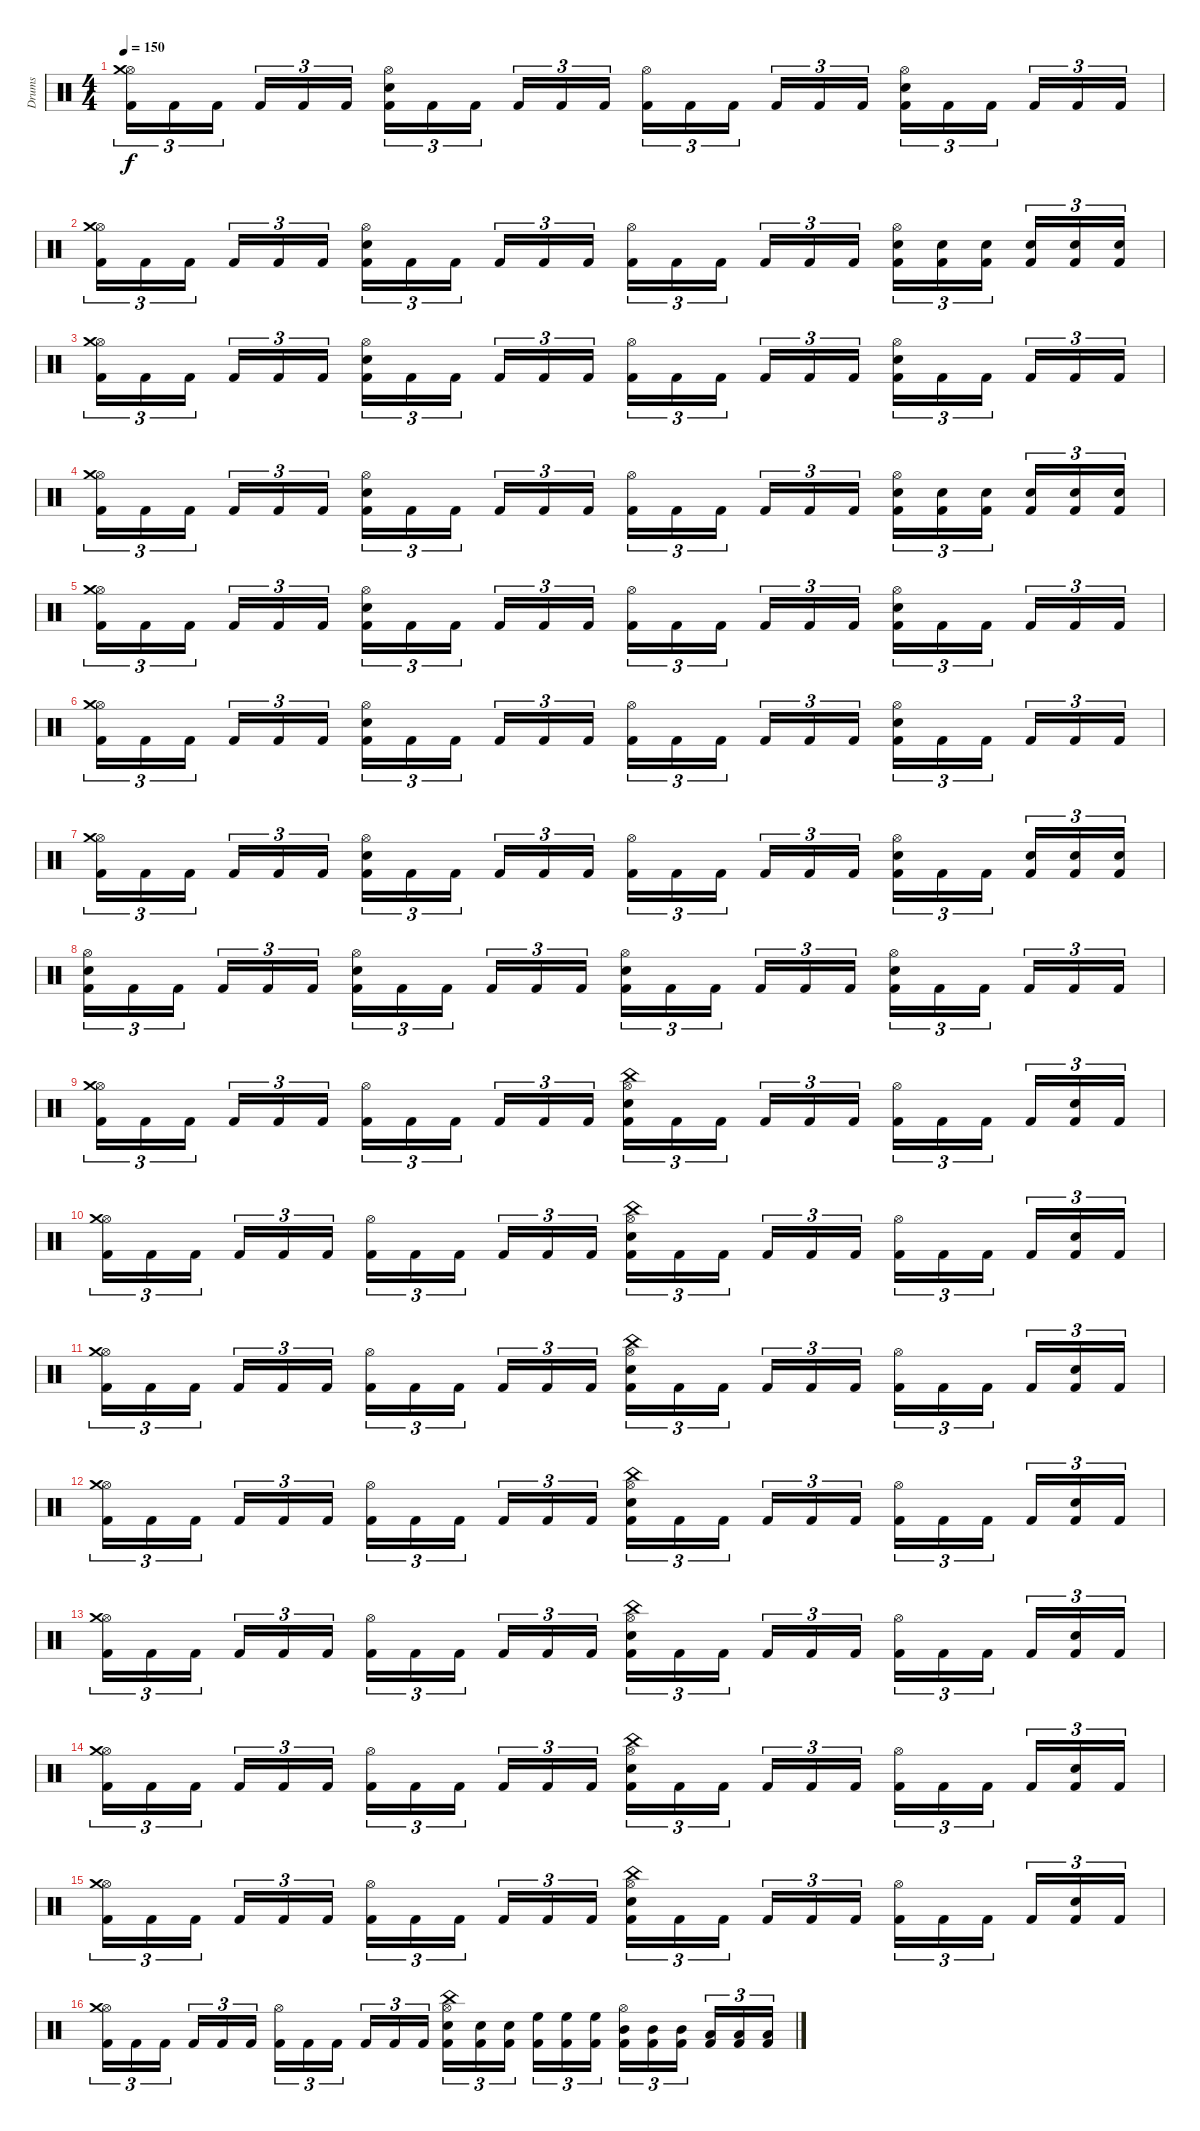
\track ("Drums" "Drums") {instrument percussion}
\staff {score}
\articulation defaults
\ts (4 4)
\tempo 150
\clef neutral
\ks c
("Hi-Hat (open)" "Crash medium (hit)" "Kick (hit) 2").16{tu (3 2) dy f} "Kick (hit) 2".16{tu (3 2)} "Kick (hit) 2".16{tu (3 2)} "Kick (hit) 2".16{tu (3 2)} "Kick (hit) 2".16{tu (3 2)} "Kick (hit) 2".16{tu (3 2)} ("Hi-Hat (open)" "Electric Snare (hit)" "Kick (hit) 2").16{tu (3 2)} "Kick (hit) 2".16{tu (3 2)} "Kick (hit) 2".16{tu (3 2)} "Kick (hit) 2".16{tu (3 2)} "Kick (hit) 2".16{tu (3 2)} "Kick (hit) 2".16{tu (3 2)} ("Hi-Hat (open)" "Kick (hit) 2").16{tu (3 2)} "Kick (hit) 2".16{tu (3 2)} "Kick (hit) 2".16{tu (3 2)} "Kick (hit) 2".16{tu (3 2)} "Kick (hit) 2".16{tu (3 2)} "Kick (hit) 2".16{tu (3 2)} ("Hi-Hat (open)" "Electric Snare (hit)" "Kick (hit) 2").16{tu (3 2)} "Kick (hit) 2".16{tu (3 2)} "Kick (hit) 2".16{tu (3 2)} "Kick (hit) 2".16{tu (3 2)} "Kick (hit) 2".16{tu (3 2)} "Kick (hit) 2".16{tu (3 2)} |
("Hi-Hat (open)" "Crash medium (hit)" "Kick (hit) 2").16{tu (3 2)} "Kick (hit) 2".16{tu (3 2)} "Kick (hit) 2".16{tu (3 2)} "Kick (hit) 2".16{tu (3 2)} "Kick (hit) 2".16{tu (3 2)} "Kick (hit) 2".16{tu (3 2)} ("Hi-Hat (open)" "Electric Snare (hit)" "Kick (hit) 2").16{tu (3 2)} "Kick (hit) 2".16{tu (3 2)} "Kick (hit) 2".16{tu (3 2)} "Kick (hit) 2".16{tu (3 2)} "Kick (hit) 2".16{tu (3 2)} "Kick (hit) 2".16{tu (3 2)} ("Hi-Hat (open)" "Kick (hit) 2").16{tu (3 2)} "Kick (hit) 2".16{tu (3 2)} "Kick (hit) 2".16{tu (3 2)} "Kick (hit) 2".16{tu (3 2)} "Kick (hit) 2".16{tu (3 2)} "Kick (hit) 2".16{tu (3 2)} ("Hi-Hat (open)" "Electric Snare (hit)" "Kick (hit) 2").16{tu (3 2)} ("Electric Snare (hit)" "Kick (hit) 2").16{tu (3 2)} ("Electric Snare (hit)" "Kick (hit) 2").16{tu (3 2)} ("Electric Snare (hit)" "Kick (hit) 2").16{tu (3 2)} ("Electric Snare (hit)" "Kick (hit) 2").16{tu (3 2)} ("Electric Snare (hit)" "Kick (hit) 2").16{tu (3 2)} |
("Hi-Hat (open)" "Crash medium (hit)" "Kick (hit) 2").16{tu (3 2)} "Kick (hit) 2".16{tu (3 2)} "Kick (hit) 2".16{tu (3 2)} "Kick (hit) 2".16{tu (3 2)} "Kick (hit) 2".16{tu (3 2)} "Kick (hit) 2".16{tu (3 2)} ("Hi-Hat (open)" "Electric Snare (hit)" "Kick (hit) 2").16{tu (3 2)} "Kick (hit) 2".16{tu (3 2)} "Kick (hit) 2".16{tu (3 2)} "Kick (hit) 2".16{tu (3 2)} "Kick (hit) 2".16{tu (3 2)} "Kick (hit) 2".16{tu (3 2)} ("Hi-Hat (open)" "Kick (hit) 2").16{tu (3 2)} "Kick (hit) 2".16{tu (3 2)} "Kick (hit) 2".16{tu (3 2)} "Kick (hit) 2".16{tu (3 2)} "Kick (hit) 2".16{tu (3 2)} "Kick (hit) 2".16{tu (3 2)} ("Hi-Hat (open)" "Electric Snare (hit)" "Kick (hit) 2").16{tu (3 2)} "Kick (hit) 2".16{tu (3 2)} "Kick (hit) 2".16{tu (3 2)} "Kick (hit) 2".16{tu (3 2)} "Kick (hit) 2".16{tu (3 2)} "Kick (hit) 2".16{tu (3 2)} |
("Hi-Hat (open)" "Crash medium (hit)" "Kick (hit) 2").16{tu (3 2)} "Kick (hit) 2".16{tu (3 2)} "Kick (hit) 2".16{tu (3 2)} "Kick (hit) 2".16{tu (3 2)} "Kick (hit) 2".16{tu (3 2)} "Kick (hit) 2".16{tu (3 2)} ("Hi-Hat (open)" "Electric Snare (hit)" "Kick (hit) 2").16{tu (3 2)} "Kick (hit) 2".16{tu (3 2)} "Kick (hit) 2".16{tu (3 2)} "Kick (hit) 2".16{tu (3 2)} "Kick (hit) 2".16{tu (3 2)} "Kick (hit) 2".16{tu (3 2)} ("Hi-Hat (open)" "Kick (hit) 2").16{tu (3 2)} "Kick (hit) 2".16{tu (3 2)} "Kick (hit) 2".16{tu (3 2)} "Kick (hit) 2".16{tu (3 2)} "Kick (hit) 2".16{tu (3 2)} "Kick (hit) 2".16{tu (3 2)} ("Hi-Hat (open)" "Electric Snare (hit)" "Kick (hit) 2").16{tu (3 2)} ("Electric Snare (hit)" "Kick (hit) 2").16{tu (3 2)} ("Electric Snare (hit)" "Kick (hit) 2").16{tu (3 2)} ("Electric Snare (hit)" "Kick (hit) 2").16{tu (3 2)} ("Electric Snare (hit)" "Kick (hit) 2").16{tu (3 2)} ("Electric Snare (hit)" "Kick (hit) 2").16{tu (3 2)} |
("Hi-Hat (open)" "Crash medium (hit)" "Kick (hit) 2").16{tu (3 2)} "Kick (hit) 2".16{tu (3 2)} "Kick (hit) 2".16{tu (3 2)} "Kick (hit) 2".16{tu (3 2)} "Kick (hit) 2".16{tu (3 2)} "Kick (hit) 2".16{tu (3 2)} ("Hi-Hat (open)" "Electric Snare (hit)" "Kick (hit) 2").16{tu (3 2)} "Kick (hit) 2".16{tu (3 2)} "Kick (hit) 2".16{tu (3 2)} "Kick (hit) 2".16{tu (3 2)} "Kick (hit) 2".16{tu (3 2)} "Kick (hit) 2".16{tu (3 2)} ("Hi-Hat (open)" "Kick (hit) 2").16{tu (3 2)} "Kick (hit) 2".16{tu (3 2)} "Kick (hit) 2".16{tu (3 2)} "Kick (hit) 2".16{tu (3 2)} "Kick (hit) 2".16{tu (3 2)} "Kick (hit) 2".16{tu (3 2)} ("Hi-Hat (open)" "Electric Snare (hit)" "Kick (hit) 2").16{tu (3 2)} "Kick (hit) 2".16{tu (3 2)} "Kick (hit) 2".16{tu (3 2)} "Kick (hit) 2".16{tu (3 2)} "Kick (hit) 2".16{tu (3 2)} "Kick (hit) 2".16{tu (3 2)} |
("Hi-Hat (open)" "Crash medium (hit)" "Kick (hit) 2").16{tu (3 2)} "Kick (hit) 2".16{tu (3 2)} "Kick (hit) 2".16{tu (3 2)} "Kick (hit) 2".16{tu (3 2)} "Kick (hit) 2".16{tu (3 2)} "Kick (hit) 2".16{tu (3 2)} ("Hi-Hat (open)" "Electric Snare (hit)" "Kick (hit) 2").16{tu (3 2)} "Kick (hit) 2".16{tu (3 2)} "Kick (hit) 2".16{tu (3 2)} "Kick (hit) 2".16{tu (3 2)} "Kick (hit) 2".16{tu (3 2)} "Kick (hit) 2".16{tu (3 2)} ("Hi-Hat (open)" "Kick (hit) 2").16{tu (3 2)} "Kick (hit) 2".16{tu (3 2)} "Kick (hit) 2".16{tu (3 2)} "Kick (hit) 2".16{tu (3 2)} "Kick (hit) 2".16{tu (3 2)} "Kick (hit) 2".16{tu (3 2)} ("Hi-Hat (open)" "Electric Snare (hit)" "Kick (hit) 2").16{tu (3 2)} "Kick (hit) 2".16{tu (3 2)} "Kick (hit) 2".16{tu (3 2)} "Kick (hit) 2".16{tu (3 2)} "Kick (hit) 2".16{tu (3 2)} "Kick (hit) 2".16{tu (3 2)} |
("Hi-Hat (open)" "Crash medium (hit)" "Kick (hit) 2").16{tu (3 2)} "Kick (hit) 2".16{tu (3 2)} "Kick (hit) 2".16{tu (3 2)} "Kick (hit) 2".16{tu (3 2)} "Kick (hit) 2".16{tu (3 2)} "Kick (hit) 2".16{tu (3 2)} ("Hi-Hat (open)" "Electric Snare (hit)" "Kick (hit) 2").16{tu (3 2)} "Kick (hit) 2".16{tu (3 2)} "Kick (hit) 2".16{tu (3 2)} "Kick (hit) 2".16{tu (3 2)} "Kick (hit) 2".16{tu (3 2)} "Kick (hit) 2".16{tu (3 2)} ("Hi-Hat (open)" "Kick (hit) 2").16{tu (3 2)} "Kick (hit) 2".16{tu (3 2)} "Kick (hit) 2".16{tu (3 2)} "Kick (hit) 2".16{tu (3 2)} "Kick (hit) 2".16{tu (3 2)} "Kick (hit) 2".16{tu (3 2)} ("Hi-Hat (open)" "Electric Snare (hit)" "Kick (hit) 2").16{tu (3 2)} "Kick (hit) 2".16{tu (3 2)} "Kick (hit) 2".16{tu (3 2)} ("Electric Snare (hit)" "Kick (hit) 2").16{tu (3 2)} ("Electric Snare (hit)" "Kick (hit) 2").16{tu (3 2)} ("Electric Snare (hit)" "Kick (hit) 2").16{tu (3 2)} |
("Hi-Hat (open)" "Electric Snare (hit)" "Kick (hit) 2").16{tu (3 2)} "Kick (hit) 2".16{tu (3 2)} "Kick (hit) 2".16{tu (3 2)} "Kick (hit) 2".16{tu (3 2)} "Kick (hit) 2".16{tu (3 2)} "Kick (hit) 2".16{tu (3 2)} ("Hi-Hat (open)" "Electric Snare (hit)" "Kick (hit) 2").16{tu (3 2)} "Kick (hit) 2".16{tu (3 2)} "Kick (hit) 2".16{tu (3 2)} "Kick (hit) 2".16{tu (3 2)} "Kick (hit) 2".16{tu (3 2)} "Kick (hit) 2".16{tu (3 2)} ("Hi-Hat (open)" "Electric Snare (hit)" "Kick (hit) 2").16{tu (3 2)} "Kick (hit) 2".16{tu (3 2)} "Kick (hit) 2".16{tu (3 2)} "Kick (hit) 2".16{tu (3 2)} "Kick (hit) 2".16{tu (3 2)} "Kick (hit) 2".16{tu (3 2)} ("Hi-Hat (open)" "Electric Snare (hit)" "Kick (hit) 2").16{tu (3 2)} "Kick (hit) 2".16{tu (3 2)} "Kick (hit) 2".16{tu (3 2)} "Kick (hit) 2".16{tu (3 2)} "Kick (hit) 2".16{tu (3 2)} "Kick (hit) 2".16{tu (3 2)} |
("Hi-Hat (open)" "Crash medium (hit)" "Kick (hit) 2").16{tu (3 2)} "Kick (hit) 2".16{tu (3 2)} "Kick (hit) 2".16{tu (3 2)} "Kick (hit) 2".16{tu (3 2)} "Kick (hit) 2".16{tu (3 2)} "Kick (hit) 2".16{tu (3 2)} ("Hi-Hat (open)" "Kick (hit) 2").16{tu (3 2)} "Kick (hit) 2".16{tu (3 2)} "Kick (hit) 2".16{tu (3 2)} "Kick (hit) 2".16{tu (3 2)} "Kick (hit) 2".16{tu (3 2)} "Kick (hit) 2".16{tu (3 2)} ("Hi-Hat (open)" "China (hit)" "Electric Snare (hit)" "Kick (hit) 2").16{tu (3 2)} "Kick (hit) 2".16{tu (3 2)} "Kick (hit) 2".16{tu (3 2)} "Kick (hit) 2".16{tu (3 2)} "Kick (hit) 2".16{tu (3 2)} "Kick (hit) 2".16{tu (3 2)} ("Hi-Hat (open)" "Kick (hit) 2").16{tu (3 2)} "Kick (hit) 2".16{tu (3 2)} "Kick (hit) 2".16{tu (3 2)} "Kick (hit) 2".16{tu (3 2)} ("Electric Snare (hit)" "Kick (hit) 2").16{tu (3 2)} "Kick (hit) 2".16{tu (3 2)} |
("Hi-Hat (open)" "Crash medium (hit)" "Kick (hit) 2").16{tu (3 2)} "Kick (hit) 2".16{tu (3 2)} "Kick (hit) 2".16{tu (3 2)} "Kick (hit) 2".16{tu (3 2)} "Kick (hit) 2".16{tu (3 2)} "Kick (hit) 2".16{tu (3 2)} ("Hi-Hat (open)" "Kick (hit) 2").16{tu (3 2)} "Kick (hit) 2".16{tu (3 2)} "Kick (hit) 2".16{tu (3 2)} "Kick (hit) 2".16{tu (3 2)} "Kick (hit) 2".16{tu (3 2)} "Kick (hit) 2".16{tu (3 2)} ("Hi-Hat (open)" "China (hit)" "Electric Snare (hit)" "Kick (hit) 2").16{tu (3 2)} "Kick (hit) 2".16{tu (3 2)} "Kick (hit) 2".16{tu (3 2)} "Kick (hit) 2".16{tu (3 2)} "Kick (hit) 2".16{tu (3 2)} "Kick (hit) 2".16{tu (3 2)} ("Hi-Hat (open)" "Kick (hit) 2").16{tu (3 2)} "Kick (hit) 2".16{tu (3 2)} "Kick (hit) 2".16{tu (3 2)} "Kick (hit) 2".16{tu (3 2)} ("Electric Snare (hit)" "Kick (hit) 2").16{tu (3 2)} "Kick (hit) 2".16{tu (3 2)} |
("Hi-Hat (open)" "Crash medium (hit)" "Kick (hit) 2").16{tu (3 2)} "Kick (hit) 2".16{tu (3 2)} "Kick (hit) 2".16{tu (3 2)} "Kick (hit) 2".16{tu (3 2)} "Kick (hit) 2".16{tu (3 2)} "Kick (hit) 2".16{tu (3 2)} ("Hi-Hat (open)" "Kick (hit) 2").16{tu (3 2)} "Kick (hit) 2".16{tu (3 2)} "Kick (hit) 2".16{tu (3 2)} "Kick (hit) 2".16{tu (3 2)} "Kick (hit) 2".16{tu (3 2)} "Kick (hit) 2".16{tu (3 2)} ("Hi-Hat (open)" "China (hit)" "Electric Snare (hit)" "Kick (hit) 2").16{tu (3 2)} "Kick (hit) 2".16{tu (3 2)} "Kick (hit) 2".16{tu (3 2)} "Kick (hit) 2".16{tu (3 2)} "Kick (hit) 2".16{tu (3 2)} "Kick (hit) 2".16{tu (3 2)} ("Hi-Hat (open)" "Kick (hit) 2").16{tu (3 2)} "Kick (hit) 2".16{tu (3 2)} "Kick (hit) 2".16{tu (3 2)} "Kick (hit) 2".16{tu (3 2)} ("Electric Snare (hit)" "Kick (hit) 2").16{tu (3 2)} "Kick (hit) 2".16{tu (3 2)} |
("Hi-Hat (open)" "Crash medium (hit)" "Kick (hit) 2").16{tu (3 2)} "Kick (hit) 2".16{tu (3 2)} "Kick (hit) 2".16{tu (3 2)} "Kick (hit) 2".16{tu (3 2)} "Kick (hit) 2".16{tu (3 2)} "Kick (hit) 2".16{tu (3 2)} ("Hi-Hat (open)" "Kick (hit) 2").16{tu (3 2)} "Kick (hit) 2".16{tu (3 2)} "Kick (hit) 2".16{tu (3 2)} "Kick (hit) 2".16{tu (3 2)} "Kick (hit) 2".16{tu (3 2)} "Kick (hit) 2".16{tu (3 2)} ("Hi-Hat (open)" "China (hit)" "Electric Snare (hit)" "Kick (hit) 2").16{tu (3 2)} "Kick (hit) 2".16{tu (3 2)} "Kick (hit) 2".16{tu (3 2)} "Kick (hit) 2".16{tu (3 2)} "Kick (hit) 2".16{tu (3 2)} "Kick (hit) 2".16{tu (3 2)} ("Hi-Hat (open)" "Kick (hit) 2").16{tu (3 2)} "Kick (hit) 2".16{tu (3 2)} "Kick (hit) 2".16{tu (3 2)} "Kick (hit) 2".16{tu (3 2)} ("Electric Snare (hit)" "Kick (hit) 2").16{tu (3 2)} "Kick (hit) 2".16{tu (3 2)} |
("Hi-Hat (open)" "Crash medium (hit)" "Kick (hit) 2").16{tu (3 2)} "Kick (hit) 2".16{tu (3 2)} "Kick (hit) 2".16{tu (3 2)} "Kick (hit) 2".16{tu (3 2)} "Kick (hit) 2".16{tu (3 2)} "Kick (hit) 2".16{tu (3 2)} ("Hi-Hat (open)" "Kick (hit) 2").16{tu (3 2)} "Kick (hit) 2".16{tu (3 2)} "Kick (hit) 2".16{tu (3 2)} "Kick (hit) 2".16{tu (3 2)} "Kick (hit) 2".16{tu (3 2)} "Kick (hit) 2".16{tu (3 2)} ("Hi-Hat (open)" "China (hit)" "Electric Snare (hit)" "Kick (hit) 2").16{tu (3 2)} "Kick (hit) 2".16{tu (3 2)} "Kick (hit) 2".16{tu (3 2)} "Kick (hit) 2".16{tu (3 2)} "Kick (hit) 2".16{tu (3 2)} "Kick (hit) 2".16{tu (3 2)} ("Hi-Hat (open)" "Kick (hit) 2").16{tu (3 2)} "Kick (hit) 2".16{tu (3 2)} "Kick (hit) 2".16{tu (3 2)} "Kick (hit) 2".16{tu (3 2)} ("Electric Snare (hit)" "Kick (hit) 2").16{tu (3 2)} "Kick (hit) 2".16{tu (3 2)} |
("Hi-Hat (open)" "Crash medium (hit)" "Kick (hit) 2").16{tu (3 2)} "Kick (hit) 2".16{tu (3 2)} "Kick (hit) 2".16{tu (3 2)} "Kick (hit) 2".16{tu (3 2)} "Kick (hit) 2".16{tu (3 2)} "Kick (hit) 2".16{tu (3 2)} ("Hi-Hat (open)" "Kick (hit) 2").16{tu (3 2)} "Kick (hit) 2".16{tu (3 2)} "Kick (hit) 2".16{tu (3 2)} "Kick (hit) 2".16{tu (3 2)} "Kick (hit) 2".16{tu (3 2)} "Kick (hit) 2".16{tu (3 2)} ("Hi-Hat (open)" "China (hit)" "Electric Snare (hit)" "Kick (hit) 2").16{tu (3 2)} "Kick (hit) 2".16{tu (3 2)} "Kick (hit) 2".16{tu (3 2)} "Kick (hit) 2".16{tu (3 2)} "Kick (hit) 2".16{tu (3 2)} "Kick (hit) 2".16{tu (3 2)} ("Hi-Hat (open)" "Kick (hit) 2").16{tu (3 2)} "Kick (hit) 2".16{tu (3 2)} "Kick (hit) 2".16{tu (3 2)} "Kick (hit) 2".16{tu (3 2)} ("Electric Snare (hit)" "Kick (hit) 2").16{tu (3 2)} "Kick (hit) 2".16{tu (3 2)} |
("Hi-Hat (open)" "Crash medium (hit)" "Kick (hit) 2").16{tu (3 2)} "Kick (hit) 2".16{tu (3 2)} "Kick (hit) 2".16{tu (3 2)} "Kick (hit) 2".16{tu (3 2)} "Kick (hit) 2".16{tu (3 2)} "Kick (hit) 2".16{tu (3 2)} ("Hi-Hat (open)" "Kick (hit) 2").16{tu (3 2)} "Kick (hit) 2".16{tu (3 2)} "Kick (hit) 2".16{tu (3 2)} "Kick (hit) 2".16{tu (3 2)} "Kick (hit) 2".16{tu (3 2)} "Kick (hit) 2".16{tu (3 2)} ("Hi-Hat (open)" "China (hit)" "Electric Snare (hit)" "Kick (hit) 2").16{tu (3 2)} "Kick (hit) 2".16{tu (3 2)} "Kick (hit) 2".16{tu (3 2)} "Kick (hit) 2".16{tu (3 2)} "Kick (hit) 2".16{tu (3 2)} "Kick (hit) 2".16{tu (3 2)} ("Hi-Hat (open)" "Kick (hit) 2").16{tu (3 2)} "Kick (hit) 2".16{tu (3 2)} "Kick (hit) 2".16{tu (3 2)} "Kick (hit) 2".16{tu (3 2)} ("Electric Snare (hit)" "Kick (hit) 2").16{tu (3 2)} "Kick (hit) 2".16{tu (3 2)} |
("Hi-Hat (open)" "Crash medium (hit)" "Kick (hit) 2").16{tu (3 2)} "Kick (hit) 2".16{tu (3 2)} "Kick (hit) 2".16{tu (3 2)} "Kick (hit) 2".16{tu (3 2)} "Kick (hit) 2".16{tu (3 2)} "Kick (hit) 2".16{tu (3 2)} ("Hi-Hat (open)" "Kick (hit) 2").16{tu (3 2)} "Kick (hit) 2".16{tu (3 2)} "Kick (hit) 2".16{tu (3 2)} "Kick (hit) 2".16{tu (3 2)} "Kick (hit) 2".16{tu (3 2)} "Kick (hit) 2".16{tu (3 2)} ("Hi-Hat (open)" "China (hit)" "Electric Snare (hit)" "Kick (hit) 2").16{tu (3 2)} ("Electric Snare (hit)" "Kick (hit) 2").16{tu (3 2)} ("Electric Snare (hit)" "Kick (hit) 2").16{tu (3 2)} ("High Floor Tom (hit)" "Kick (hit) 2").16{tu (3 2)} ("High Floor Tom (hit)" "Kick (hit) 2").16{tu (3 2)} ("High Floor Tom (hit)" "Kick (hit) 2").16{tu (3 2)} ("Hi-Hat (open)" "Mid Tom (hit)" "Kick (hit) 2").16{tu (3 2)} ("Mid Tom (hit)" "Kick (hit) 2").16{tu (3 2)} ("Mid Tom (hit)" "Kick (hit) 2").16{tu (3 2)} ("Low Tom (hit)" "Kick (hit) 2").16{tu (3 2)} ("Low Tom (hit)" "Kick (hit) 2").16{tu (3 2)} ("Low Tom (hit)" "Kick (hit) 2").16{tu (3 2)}
